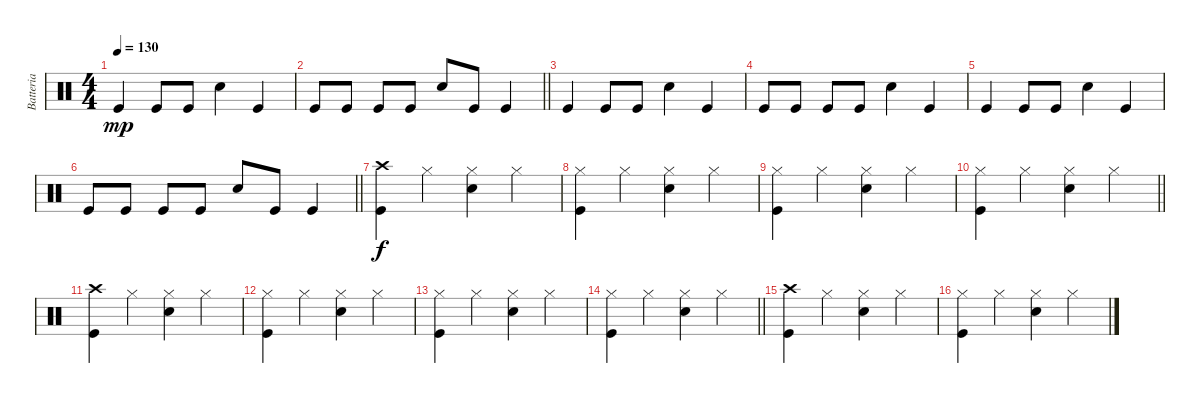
\track ("Batteria" "Batteria") {instrument percussion}
\staff {score}
\articulation defaults
\ts (4 4)
\tempo 130
\clef neutral
\ks c "Kick (hit)".4{dy mp} "Kick (hit)".8 "Kick (hit)".8 "Snare (hit) 2".4 "Kick (hit)".4
|
\barLineRight lightlight "Kick (hit)".8 "Kick (hit)".8 "Kick (hit)".8 "Kick (hit)".8 "Snare (hit) 2".8 "Kick (hit)".8 "Kick (hit)".4
|
"Kick (hit)".4 "Kick (hit)".8 "Kick (hit)".8 "Snare (hit) 2".4 "Kick (hit)".4 |
"Kick (hit)".8 "Kick (hit)".8 "Kick (hit)".8 "Kick (hit)".8 "Snare (hit) 2".4 "Kick (hit)".4 |
"Kick (hit)".4 "Kick (hit)".8 "Kick (hit)".8 "Snare (hit) 2".4 "Kick (hit)".4 |
\barLineRight lightlight "Kick (hit)".8 "Kick (hit)".8 "Kick (hit)".8 "Kick (hit)".8 "Snare (hit) 2".8 "Kick (hit)".8 "Kick (hit)".4
|
("Kick (hit)" "Crash high (hit)").4{dy f} "Hi-Hat (closed)".4 ("Snare (hit) 2" "Hi-Hat (closed)").4 "Hi-Hat (closed)".4 |
("Kick (hit)" "Hi-Hat (closed)").4 "Hi-Hat (closed)".4 ("Snare (hit) 2" "Hi-Hat (closed)").4 "Hi-Hat (closed)".4 |
("Kick (hit)" "Hi-Hat (closed)").4 "Hi-Hat (closed)".4 ("Snare (hit) 2" "Hi-Hat (closed)").4 "Hi-Hat (closed)".4 |
\barLineRight lightlight
("Kick (hit)" "Hi-Hat (closed)").4 "Hi-Hat (closed)".4 ("Snare (hit) 2" "Hi-Hat (closed)").4 "Hi-Hat (closed)".4 |
("Kick (hit)" "Crash high (hit)").4 "Hi-Hat (closed)".4 ("Snare (hit) 2" "Hi-Hat (closed)").4 "Hi-Hat (closed)".4 |
("Kick (hit)" "Hi-Hat (closed)").4 "Hi-Hat (closed)".4 ("Snare (hit) 2" "Hi-Hat (closed)").4 "Hi-Hat (closed)".4 |
("Kick (hit)" "Hi-Hat (closed)").4 "Hi-Hat (closed)".4 ("Snare (hit) 2" "Hi-Hat (closed)").4 "Hi-Hat (closed)".4 |
\barLineRight lightlight
("Kick (hit)" "Hi-Hat (closed)").4 "Hi-Hat (closed)".4 ("Snare (hit) 2" "Hi-Hat (closed)").4 "Hi-Hat (closed)".4 |
("Kick (hit)" "Crash high (hit)").4 "Hi-Hat (closed)".4 ("Snare (hit) 2" "Hi-Hat (closed)").4 "Hi-Hat (closed)".4 |
("Kick (hit)" "Hi-Hat (closed)").4 "Hi-Hat (closed)".4 ("Snare (hit) 2" "Hi-Hat (closed)").4 "Hi-Hat (closed)".4
